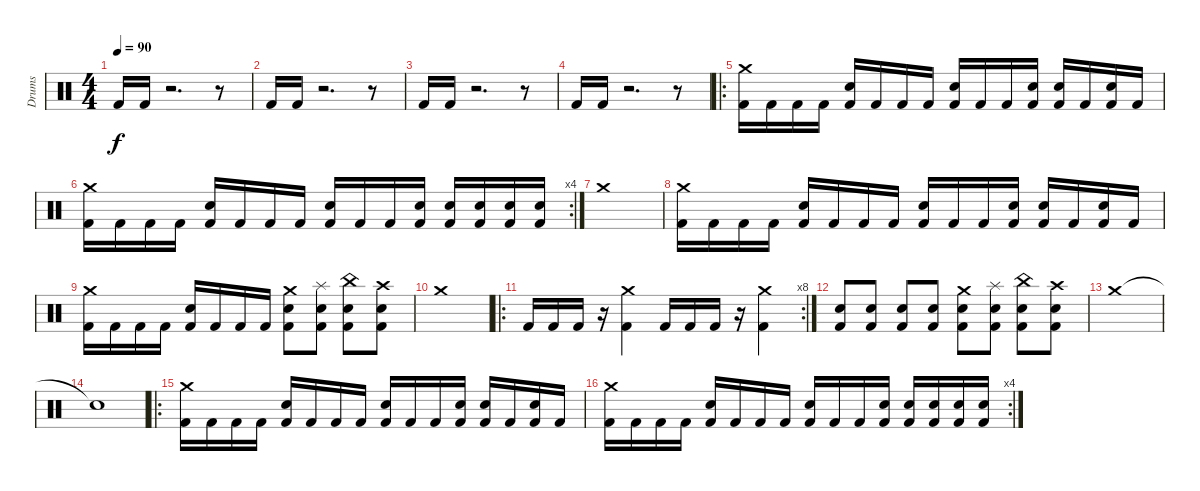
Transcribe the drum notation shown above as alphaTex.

\track ("Drums" "Drums") {instrument percussion}
\staff {score}
\articulation defaults
\ts (4 4)
\tempo 90
\clef neutral
\ks c "Kick (hit) 2".16{dy f} "Kick (hit) 2".16
r.2{d} r.8 |
"Kick (hit) 2".16 "Kick (hit) 2".16 r.2{d} r.8 |
"Kick (hit) 2".16 "Kick (hit) 2".16 r.2{d} r.8 |
"Kick (hit) 2".16 "Kick (hit) 2".16 r.2{d} r.8 |
\ro
("Crash medium (hit)" "Kick (hit) 2").16 "Kick (hit) 2".16 "Kick (hit) 2".16 "Kick (hit) 2".16 ("Snare (hit) 2" "Kick (hit) 2").16 "Kick (hit) 2".16 "Kick (hit) 2".16 "Kick (hit) 2".16 ("Snare (hit) 2" "Kick (hit) 2").16 "Kick (hit) 2".16 "Kick (hit) 2".16 ("Snare (hit) 2" "Kick (hit) 2").16 ("Snare (hit) 2" "Kick (hit) 2").16 "Kick (hit) 2".16 ("Snare (hit) 2" "Kick (hit) 2").16 "Kick (hit) 2".16 |
\rc 4
("Crash medium (hit)" "Kick (hit) 2").16 "Kick (hit) 2".16 "Kick (hit) 2".16 "Kick (hit) 2".16 ("Snare (hit) 2" "Kick (hit) 2").16 "Kick (hit) 2".16 "Kick (hit) 2".16 "Kick (hit) 2".16 ("Snare (hit) 2" "Kick (hit) 2").16 "Kick (hit) 2".16 "Kick (hit) 2".16 ("Snare (hit) 2" "Kick (hit) 2").16 ("Snare (hit) 2" "Kick (hit) 2").16 ("Snare (hit) 2" "Kick (hit) 2").16 ("Snare (hit) 2" "Kick (hit) 2").16 ("Snare (hit) 2" "Kick (hit) 2").16 |
"Crash medium (hit)".1 |
("Crash medium (hit)" "Kick (hit) 2").16 "Kick (hit) 2".16 "Kick (hit) 2".16 "Kick (hit) 2".16 ("Snare (hit) 2" "Kick (hit) 2").16 "Kick (hit) 2".16 "Kick (hit) 2".16 "Kick (hit) 2".16 ("Snare (hit) 2" "Kick (hit) 2").16 "Kick (hit) 2".16 "Kick (hit) 2".16 ("Snare (hit) 2" "Kick (hit) 2").16 ("Snare (hit) 2" "Kick (hit) 2").16 "Kick (hit) 2".16 ("Snare (hit) 2" "Kick (hit) 2").16 "Kick (hit) 2".16 |
("Crash medium (hit)" "Kick (hit) 2").16 "Kick (hit) 2".16 "Kick (hit) 2".16 "Kick (hit) 2".16 ("Snare (hit) 2" "Kick (hit) 2").16 "Kick (hit) 2".16 "Kick (hit) 2".16 "Kick (hit) 2".16 ("Crash medium (hit)" "Snare (hit) 2" "Kick (hit) 2").8 ("Splash (hit)" "Snare (hit) 2" "Kick (hit) 2").8 ("China (hit)" "Snare (hit) 2" "Kick (hit) 2").8 ("Crash high (hit)" "Snare (hit) 2" "Kick (hit) 2").8 |
"Crash medium (hit)".1 |
\ro
\rc 8 "Kick (hit) 2".16 "Kick (hit) 2".16 "Kick (hit) 2".16
r.16 ("Crash medium (hit)" "Kick (hit) 2").4 "Kick (hit) 2".16 "Kick (hit) 2".16 "Kick (hit) 2".16 r.16 ("Crash medium (hit)" "Kick (hit) 2").4 |
("Snare (hit) 2" "Kick (hit) 2").8 ("Snare (hit) 2" "Kick (hit) 2").8 ("Snare (hit) 2" "Kick (hit) 2").8 ("Snare (hit) 2" "Kick (hit) 2").8 ("Crash medium (hit)" "Snare (hit) 2" "Kick (hit) 2").8 ("Splash (hit)" "Snare (hit) 2" "Kick (hit) 2").8 ("China (hit)" "Snare (hit) 2" "Kick (hit) 2").8 ("Crash high (hit)" "Snare (hit) 2" "Kick (hit) 2").8 |
"Crash medium (hit)".1 |
"Snare (hit)"{t}.1 |
\ro
("Crash medium (hit)" "Kick (hit) 2").16 "Kick (hit) 2".16 "Kick (hit) 2".16 "Kick (hit) 2".16 ("Snare (hit) 2" "Kick (hit) 2").16 "Kick (hit) 2".16 "Kick (hit) 2".16 "Kick (hit) 2".16 ("Snare (hit) 2" "Kick (hit) 2").16 "Kick (hit) 2".16 "Kick (hit) 2".16 ("Snare (hit) 2" "Kick (hit) 2").16 ("Snare (hit) 2" "Kick (hit) 2").16 "Kick (hit) 2".16 ("Snare (hit) 2" "Kick (hit) 2").16 "Kick (hit) 2".16 |
\rc 4
("Crash medium (hit)" "Kick (hit) 2").16 "Kick (hit) 2".16 "Kick (hit) 2".16 "Kick (hit) 2".16 ("Snare (hit) 2" "Kick (hit) 2").16 "Kick (hit) 2".16 "Kick (hit) 2".16 "Kick (hit) 2".16 ("Snare (hit) 2" "Kick (hit) 2").16 "Kick (hit) 2".16 "Kick (hit) 2".16 ("Snare (hit) 2" "Kick (hit) 2").16 ("Snare (hit) 2" "Kick (hit) 2").16 ("Snare (hit) 2" "Kick (hit) 2").16 ("Snare (hit) 2" "Kick (hit) 2").16 ("Snare (hit) 2" "Kick (hit) 2").16
